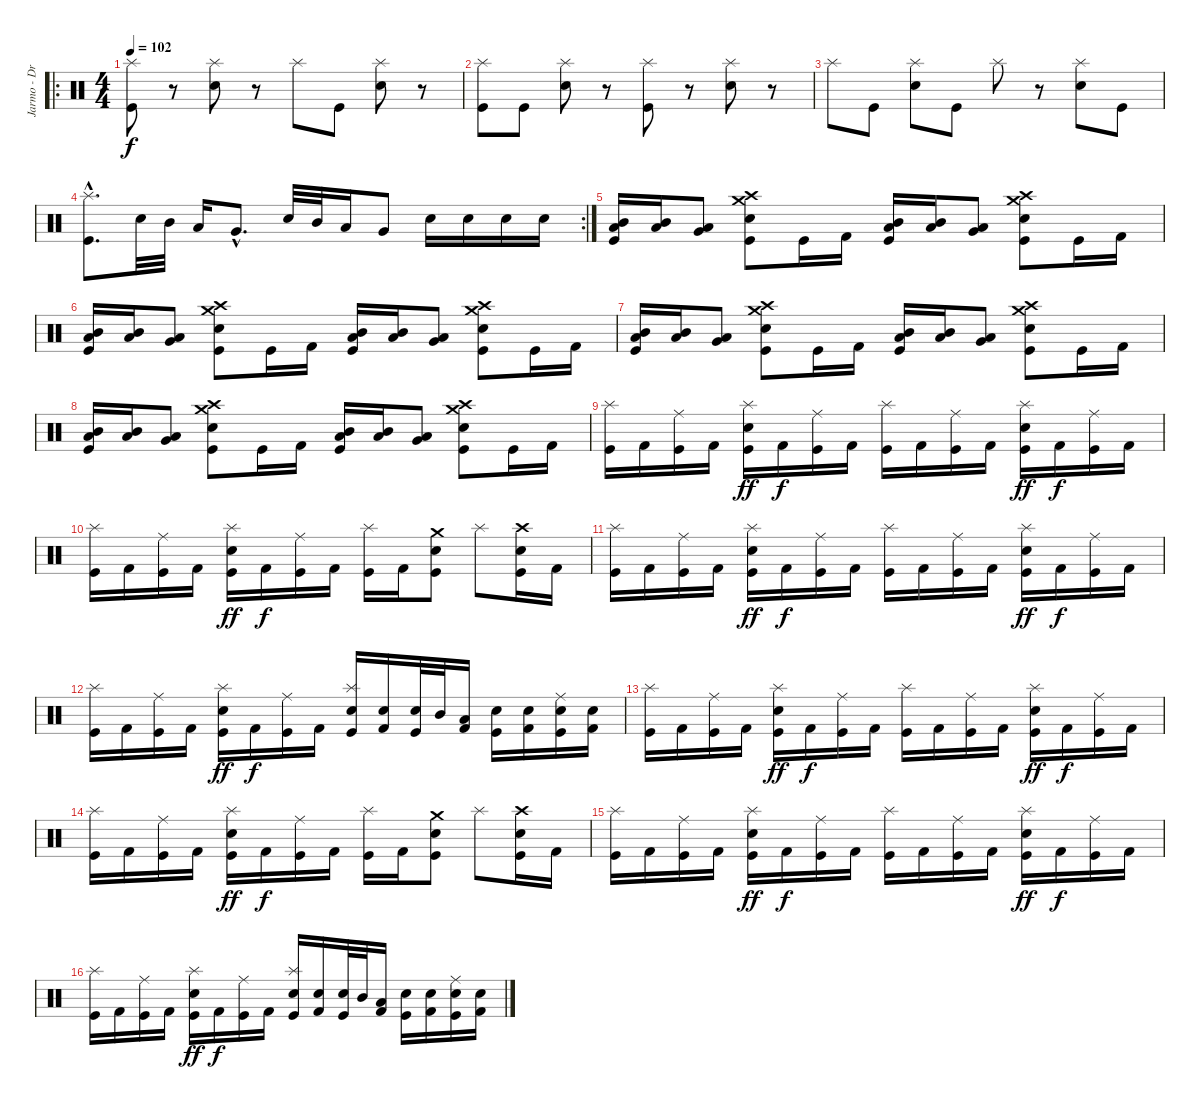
\track ("Jarmo - Drums" "Jarmo - Dr") {instrument percussion}
\staff {score}
\articulation defaults
\ro
\ts (4 4)
\tempo 102
\clef neutral
\ks c
("Kick (hit)" "Splash (hit)").8{dy f} r.8 ("Electric Snare (hit)" "Splash (hit)").8 r.8 "Splash (hit)".8 "Kick (hit)".8 ("Electric Snare (hit)" "Splash (hit)").8 r.8 |
("Kick (hit)" "Splash (hit)").8 "Kick (hit)".8 ("Electric Snare (hit)" "Splash (hit)").8 r.8 ("Kick (hit)" "Splash (hit)").8 r.8 ("Electric Snare (hit)" "Splash (hit)").8 r.8 |
"Splash (hit)".8 "Kick (hit)".8 ("Electric Snare (hit)" "Splash (hit)").8 "Kick (hit)".8 "Splash (hit)".8 r.8 ("Electric Snare (hit)" "Splash (hit)").8 "Kick (hit)".8 |
\rc 2
("Kick (hit)"{hac} "Splash (hit)"{hac}).8{d} "Electric Snare (hit)".32 "Mid Tom (hit)".32 "Low Tom (hit)".16 "Very Low Tom (hit)"{hac}.8{d} "Electric Snare (hit)".32 "Mid Tom (hit)".32 "Low Tom (hit)".16 "Very Low Tom (hit)".8 "Electric Snare (hit)".16 "Electric Snare (hit)".16 "Electric Snare (hit)".16 "Electric Snare (hit)".16 |
("Kick (hit)" "Mid Tom (hit)" "Low Tom (hit)").16 ("Mid Tom (hit)" "Low Tom (hit)").16 ("Low Tom (hit)" "Very Low Tom (hit)").8 ("Kick (hit)" "Electric Snare (hit)" "Crash high (hit)" "Crash medium (hit)").8 "Kick (hit)".16 "Kick (hit) 2".16 ("Kick (hit)" "Mid Tom (hit)" "Low Tom (hit)").16 ("Mid Tom (hit)" "Low Tom (hit)").16 ("Low Tom (hit)" "Very Low Tom (hit)").8 ("Kick (hit)" "Electric Snare (hit)" "Crash high (hit)" "Crash medium (hit)").8 "Kick (hit)".16 "Kick (hit) 2".16 |
("Kick (hit)" "Mid Tom (hit)" "Low Tom (hit)").16 ("Mid Tom (hit)" "Low Tom (hit)").16 ("Low Tom (hit)" "Very Low Tom (hit)").8 ("Kick (hit)" "Electric Snare (hit)" "Crash high (hit)" "Crash medium (hit)").8 "Kick (hit)".16 "Kick (hit) 2".16 ("Kick (hit)" "Mid Tom (hit)" "Low Tom (hit)").16 ("Mid Tom (hit)" "Low Tom (hit)").16 ("Low Tom (hit)" "Very Low Tom (hit)").8 ("Kick (hit)" "Electric Snare (hit)" "Crash high (hit)" "Crash medium (hit)").8 "Kick (hit)".16 "Kick (hit) 2".16 |
("Kick (hit)" "Mid Tom (hit)" "Low Tom (hit)").16 ("Mid Tom (hit)" "Low Tom (hit)").16 ("Low Tom (hit)" "Very Low Tom (hit)").8 ("Kick (hit)" "Electric Snare (hit)" "Crash high (hit)" "Crash medium (hit)").8 "Kick (hit)".16 "Kick (hit) 2".16 ("Kick (hit)" "Mid Tom (hit)" "Low Tom (hit)").16 ("Mid Tom (hit)" "Low Tom (hit)").16 ("Low Tom (hit)" "Very Low Tom (hit)").8 ("Kick (hit)" "Electric Snare (hit)" "Crash high (hit)" "Crash medium (hit)").8 "Kick (hit)".16 "Kick (hit) 2".16 |
("Kick (hit)" "Mid Tom (hit)" "Low Tom (hit)").16 ("Mid Tom (hit)" "Low Tom (hit)").16 ("Low Tom (hit)" "Very Low Tom (hit)").8 ("Kick (hit)" "Electric Snare (hit)" "Crash high (hit)" "Crash medium (hit)").8 "Kick (hit)".16 "Kick (hit) 2".16 ("Kick (hit)" "Mid Tom (hit)" "Low Tom (hit)").16 ("Mid Tom (hit)" "Low Tom (hit)").16 ("Low Tom (hit)" "Very Low Tom (hit)").8 ("Kick (hit)" "Electric Snare (hit)" "Crash high (hit)" "Crash medium (hit)").8 "Kick (hit)".16 "Kick (hit) 2".16 |
("Kick (hit)" "Splash (hit)").16 "Kick (hit) 2".16 ("Kick (hit)" "Ride (middle)").16 "Kick (hit) 2".16 ("Kick (hit)" "Electric Snare (hit)" "Splash (hit)").16{dy ff} "Kick (hit) 2".16{dy f} ("Kick (hit)" "Ride (middle)").16 "Kick (hit) 2".16 ("Kick (hit)" "Splash (hit)").16 "Kick (hit) 2".16 ("Kick (hit)" "Ride (middle)").16 "Kick (hit) 2".16 ("Kick (hit)" "Electric Snare (hit)" "Splash (hit)").16{dy ff} "Kick (hit) 2".16{dy f} ("Kick (hit)" "Ride (middle)").16 "Kick (hit) 2".16 |
("Kick (hit)" "Splash (hit)").16 "Kick (hit) 2".16 ("Kick (hit)" "Ride (middle)").16 "Kick (hit) 2".16 ("Kick (hit)" "Electric Snare (hit)" "Splash (hit)").16{dy ff} "Kick (hit) 2".16{dy f} ("Kick (hit)" "Ride (middle)").16 "Kick (hit) 2".16 ("Kick (hit)" "Splash (hit)").16 "Kick (hit) 2".16 ("Kick (hit)" "Electric Snare (hit)" "Crash medium (hit)").8 "Splash (hit)".8 ("Kick (hit)" "Electric Snare (hit)" "Crash high (hit)").16 "Kick (hit) 2".16 |
("Kick (hit)" "Splash (hit)").16 "Kick (hit) 2".16 ("Kick (hit)" "Ride (middle)").16 "Kick (hit) 2".16 ("Kick (hit)" "Electric Snare (hit)" "Splash (hit)").16{dy ff} "Kick (hit) 2".16{dy f} ("Kick (hit)" "Ride (middle)").16 "Kick (hit) 2".16 ("Kick (hit)" "Splash (hit)").16 "Kick (hit) 2".16 ("Kick (hit)" "Ride (middle)").16 "Kick (hit) 2".16 ("Kick (hit)" "Electric Snare (hit)" "Splash (hit)").16{dy ff} "Kick (hit) 2".16{dy f} ("Kick (hit)" "Ride (middle)").16 "Kick (hit) 2".16 |
("Kick (hit)" "Splash (hit)").16 "Kick (hit) 2".16 ("Kick (hit)" "Ride (middle)").16 "Kick (hit) 2".16 ("Kick (hit)" "Electric Snare (hit)" "Splash (hit)").16{dy ff} "Kick (hit) 2".16{dy f} ("Kick (hit)" "Ride (middle)").16 "Kick (hit) 2".16 ("Kick (hit)" "Electric Snare (hit)" "Splash (hit)").16 ("Kick (hit) 2" "Electric Snare (hit)").16 ("Kick (hit)" "Electric Snare (hit)").32 "Mid Tom (hit)".32 ("Kick (hit) 2" "Low Tom (hit)").16 ("Kick (hit)" "Electric Snare (hit)").16 ("Kick (hit) 2" "Electric Snare (hit)").16 ("Kick (hit)" "Electric Snare (hit)" "Ride (middle)").16 ("Kick (hit) 2" "Electric Snare (hit)").16 |
("Kick (hit)" "Splash (hit)").16 "Kick (hit) 2".16 ("Kick (hit)" "Ride (middle)").16 "Kick (hit) 2".16 ("Kick (hit)" "Electric Snare (hit)" "Splash (hit)").16{dy ff} "Kick (hit) 2".16{dy f} ("Kick (hit)" "Ride (middle)").16 "Kick (hit) 2".16 ("Kick (hit)" "Splash (hit)").16 "Kick (hit) 2".16 ("Kick (hit)" "Ride (middle)").16 "Kick (hit) 2".16 ("Kick (hit)" "Electric Snare (hit)" "Splash (hit)").16{dy ff} "Kick (hit) 2".16{dy f} ("Kick (hit)" "Ride (middle)").16 "Kick (hit) 2".16 |
("Kick (hit)" "Splash (hit)").16 "Kick (hit) 2".16 ("Kick (hit)" "Ride (middle)").16 "Kick (hit) 2".16 ("Kick (hit)" "Electric Snare (hit)" "Splash (hit)").16{dy ff} "Kick (hit) 2".16{dy f} ("Kick (hit)" "Ride (middle)").16 "Kick (hit) 2".16 ("Kick (hit)" "Splash (hit)").16 "Kick (hit) 2".16 ("Kick (hit)" "Electric Snare (hit)" "Crash medium (hit)").8 "Splash (hit)".8 ("Kick (hit)" "Electric Snare (hit)" "Crash high (hit)").16 "Kick (hit) 2".16 |
("Kick (hit)" "Splash (hit)").16 "Kick (hit) 2".16 ("Kick (hit)" "Ride (middle)").16 "Kick (hit) 2".16 ("Kick (hit)" "Electric Snare (hit)" "Splash (hit)").16{dy ff} "Kick (hit) 2".16{dy f} ("Kick (hit)" "Ride (middle)").16 "Kick (hit) 2".16 ("Kick (hit)" "Splash (hit)").16 "Kick (hit) 2".16 ("Kick (hit)" "Ride (middle)").16 "Kick (hit) 2".16 ("Kick (hit)" "Electric Snare (hit)" "Splash (hit)").16{dy ff} "Kick (hit) 2".16{dy f} ("Kick (hit)" "Ride (middle)").16 "Kick (hit) 2".16 |
("Kick (hit)" "Splash (hit)").16 "Kick (hit) 2".16 ("Kick (hit)" "Ride (middle)").16 "Kick (hit) 2".16 ("Kick (hit)" "Electric Snare (hit)" "Splash (hit)").16{dy ff} "Kick (hit) 2".16{dy f} ("Kick (hit)" "Ride (middle)").16 "Kick (hit) 2".16 ("Kick (hit)" "Electric Snare (hit)" "Splash (hit)").16 ("Kick (hit) 2" "Electric Snare (hit)").16 ("Kick (hit)" "Electric Snare (hit)").32 "Mid Tom (hit)".32 ("Kick (hit) 2" "Low Tom (hit)").16 ("Kick (hit)" "Electric Snare (hit)").16 ("Kick (hit) 2" "Electric Snare (hit)").16 ("Kick (hit)" "Electric Snare (hit)" "Ride (middle)").16 ("Kick (hit) 2" "Electric Snare (hit)").16
